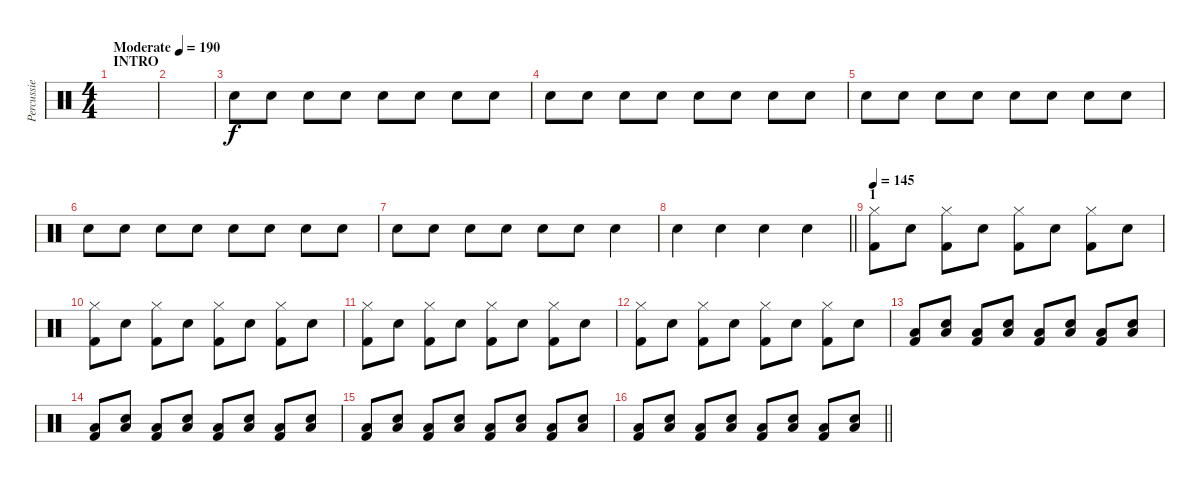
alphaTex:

\track ("Percussie" "Percussie") {instrument percussion}
\staff {score}
\articulation defaults
\ts (4 4)
\section ("" "INTRO")
\tempo (190 "Moderate")
\clef neutral
\ks c
|
|
"Snare (hit) 2".8 "Snare (hit) 2".8 "Snare (hit) 2".8 "Snare (hit) 2".8 "Snare (hit) 2".8 "Snare (hit) 2".8 "Snare (hit) 2".8 "Snare (hit) 2".8 |
"Snare (hit) 2".8 "Snare (hit) 2".8 "Snare (hit) 2".8 "Snare (hit) 2".8 "Snare (hit) 2".8 "Snare (hit) 2".8 "Snare (hit) 2".8 "Snare (hit) 2".8 |
"Snare (hit) 2".8 "Snare (hit) 2".8 "Snare (hit) 2".8 "Snare (hit) 2".8 "Snare (hit) 2".8 "Snare (hit) 2".8 "Snare (hit) 2".8 "Snare (hit) 2".8 |
"Snare (hit) 2".8 "Snare (hit) 2".8 "Snare (hit) 2".8 "Snare (hit) 2".8 "Snare (hit) 2".8 "Snare (hit) 2".8 "Snare (hit) 2".8 "Snare (hit) 2".8 |
"Snare (hit) 2".8 "Snare (hit) 2".8 "Snare (hit) 2".8 "Snare (hit) 2".8 "Snare (hit) 2".8 "Snare (hit) 2".8 "Snare (hit) 2".4 |
\barLineRight lightlight "Snare (hit) 2".4 "Snare (hit) 2".4 "Snare (hit) 2".4 "Snare (hit) 2".4
|
\section ("" "1")
\tempo 145
("Hi-Hat (closed)" "Kick (hit) 2").8 "Snare (hit) 2".8 ("Hi-Hat (closed)" "Kick (hit) 2").8 "Snare (hit) 2".8 ("Hi-Hat (closed)" "Kick (hit) 2").8 "Snare (hit) 2".8 ("Hi-Hat (closed)" "Kick (hit) 2").8 "Snare (hit) 2".8 |
("Hi-Hat (closed)" "Kick (hit) 2").8 "Snare (hit) 2".8 ("Hi-Hat (closed)" "Kick (hit) 2").8 "Snare (hit) 2".8 ("Hi-Hat (closed)" "Kick (hit) 2").8 "Snare (hit) 2".8 ("Hi-Hat (closed)" "Kick (hit) 2").8 "Snare (hit) 2".8 |
("Hi-Hat (closed)" "Kick (hit) 2").8 "Snare (hit) 2".8 ("Hi-Hat (closed)" "Kick (hit) 2").8 "Snare (hit) 2".8 ("Hi-Hat (closed)" "Kick (hit) 2").8 "Snare (hit) 2".8 ("Hi-Hat (closed)" "Kick (hit) 2").8 "Snare (hit) 2".8 |
("Hi-Hat (closed)" "Kick (hit) 2").8 "Snare (hit) 2".8 ("Hi-Hat (closed)" "Kick (hit) 2").8 "Snare (hit) 2".8 ("Hi-Hat (closed)" "Kick (hit) 2").8 "Snare (hit) 2".8 ("Hi-Hat (closed)" "Kick (hit) 2").8 "Snare (hit) 2".8 |
("Low Floor Tom (hit)" "Kick (hit) 2").8 ("Low Floor Tom (hit)" "Snare (hit) 2").8 ("Low Floor Tom (hit)" "Kick (hit) 2").8 ("Low Floor Tom (hit)" "Snare (hit) 2").8 ("Low Floor Tom (hit)" "Kick (hit) 2").8 ("Low Floor Tom (hit)" "Snare (hit) 2").8 ("Low Floor Tom (hit)" "Kick (hit) 2").8 ("Low Floor Tom (hit)" "Snare (hit) 2").8 |
("Low Floor Tom (hit)" "Kick (hit) 2").8 ("Low Floor Tom (hit)" "Snare (hit) 2").8 ("Low Floor Tom (hit)" "Kick (hit) 2").8 ("Low Floor Tom (hit)" "Snare (hit) 2").8 ("Low Floor Tom (hit)" "Kick (hit) 2").8 ("Low Floor Tom (hit)" "Snare (hit) 2").8 ("Low Floor Tom (hit)" "Kick (hit) 2").8 ("Low Floor Tom (hit)" "Snare (hit) 2").8 |
("Low Floor Tom (hit)" "Kick (hit) 2").8 ("Low Floor Tom (hit)" "Snare (hit) 2").8 ("Low Floor Tom (hit)" "Kick (hit) 2").8 ("Low Floor Tom (hit)" "Snare (hit) 2").8 ("Low Floor Tom (hit)" "Kick (hit) 2").8 ("Low Floor Tom (hit)" "Snare (hit) 2").8 ("Low Floor Tom (hit)" "Kick (hit) 2").8 ("Low Floor Tom (hit)" "Snare (hit) 2").8 |
\barLineRight lightlight
("Low Floor Tom (hit)" "Kick (hit) 2").8 ("Low Floor Tom (hit)" "Snare (hit) 2").8 ("Low Floor Tom (hit)" "Kick (hit) 2").8 ("Low Floor Tom (hit)" "Snare (hit) 2").8 ("Low Floor Tom (hit)" "Kick (hit) 2").8 ("Low Floor Tom (hit)" "Snare (hit) 2").8 ("Low Floor Tom (hit)" "Kick (hit) 2").8 ("Low Floor Tom (hit)" "Snare (hit) 2").8
